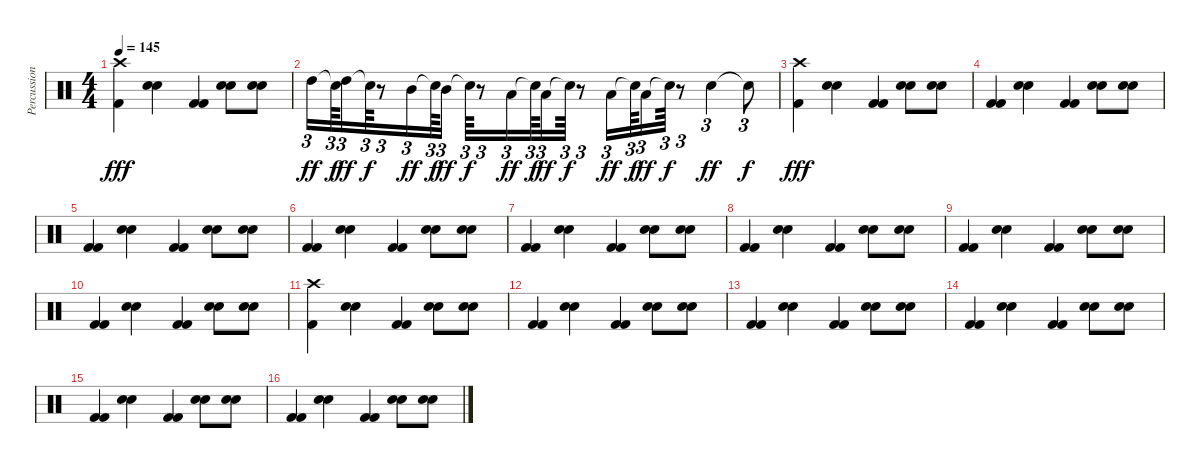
\track ("Percussion ( Keyboard )" "Percussion") {instrument percussion bank 4}
\staff {score}
\articulation defaults
\ts (4 4)
\tempo 145
\clef neutral
\ks c
("Crash high (hit)" "Kick (hit) 2").4{dy fff} ("Electric Snare (hit)" "Hand Clap (hit)").4 ("Kick (hit) 2" "Kick (hit) 2").4 ("Electric Snare (hit)" "Hand Clap (hit)").8 ("Electric Snare (hit)" "Hand Clap (hit)").8 |
"High Tom (hit)".16{tu (3 2) dy ff} "Snare (hit)"{t}.64{tu (3 2) dy f} "High Tom (hit)".16{tu (3 2) dy ff} "Snare (hit)"{t}.64{tu (3 2) dy f} r.8{tu (3 2)} "Mid Tom (hit)".16{tu (3 2) dy ff} "Snare (hit)"{t}.64{tu (3 2) dy f} "Mid Tom (hit)".16{tu (3 2) dy ff} "Snare (hit)"{t}.64{tu (3 2) dy f} r.8{tu (3 2)} "Low Tom (hit)".16{tu (3 2) dy ff} "Snare (hit)"{t}.64{tu (3 2) dy f} "Low Tom (hit)".16{tu (3 2) dy ff} "Snare (hit)"{t}.64{tu (3 2) dy f} r.8{tu (3 2)} "Low Floor Tom (hit)".16{tu (3 2) dy ff} "Snare (hit)"{t}.64{tu (3 2) dy f} "Low Floor Tom (hit)".16{tu (3 2) dy ff} "Snare (hit)"{t}.64{tu (3 2) dy f} r.8{tu (3 2)} "Hand Clap (hit)".4{tu (3 2) dy ff} "Snare (hit)"{t}.8{tu (3 2) dy f} |
("Crash high (hit)" "Kick (hit) 2").4{dy fff} ("Electric Snare (hit)" "Hand Clap (hit)").4 ("Kick (hit) 2" "Kick (hit) 2").4 ("Electric Snare (hit)" "Hand Clap (hit)").8 ("Electric Snare (hit)" "Hand Clap (hit)").8 |
("Kick (hit) 2" "Kick (hit) 2").4 ("Electric Snare (hit)" "Hand Clap (hit)").4 ("Kick (hit) 2" "Kick (hit) 2").4 ("Electric Snare (hit)" "Hand Clap (hit)").8 ("Electric Snare (hit)" "Hand Clap (hit)").8 |
("Kick (hit) 2" "Kick (hit) 2").4 ("Electric Snare (hit)" "Hand Clap (hit)").4 ("Kick (hit) 2" "Kick (hit) 2").4 ("Electric Snare (hit)" "Hand Clap (hit)").8 ("Electric Snare (hit)" "Hand Clap (hit)").8 |
("Kick (hit) 2" "Kick (hit) 2").4 ("Electric Snare (hit)" "Hand Clap (hit)").4 ("Kick (hit) 2" "Kick (hit) 2").4 ("Electric Snare (hit)" "Hand Clap (hit)").8 ("Electric Snare (hit)" "Hand Clap (hit)").8 |
("Kick (hit) 2" "Kick (hit) 2").4 ("Electric Snare (hit)" "Hand Clap (hit)").4 ("Kick (hit) 2" "Kick (hit) 2").4 ("Electric Snare (hit)" "Hand Clap (hit)").8 ("Electric Snare (hit)" "Hand Clap (hit)").8 |
("Kick (hit) 2" "Kick (hit) 2").4 ("Electric Snare (hit)" "Hand Clap (hit)").4 ("Kick (hit) 2" "Kick (hit) 2").4 ("Electric Snare (hit)" "Hand Clap (hit)").8 ("Electric Snare (hit)" "Hand Clap (hit)").8 |
("Kick (hit) 2" "Kick (hit) 2").4 ("Electric Snare (hit)" "Hand Clap (hit)").4 ("Kick (hit) 2" "Kick (hit) 2").4 ("Electric Snare (hit)" "Hand Clap (hit)").8 ("Electric Snare (hit)" "Hand Clap (hit)").8 |
("Kick (hit) 2" "Kick (hit) 2").4 ("Electric Snare (hit)" "Hand Clap (hit)").4 ("Kick (hit) 2" "Kick (hit) 2").4 ("Electric Snare (hit)" "Hand Clap (hit)").8 ("Electric Snare (hit)" "Hand Clap (hit)").8 |
("Crash high (hit)" "Kick (hit) 2").4 ("Electric Snare (hit)" "Hand Clap (hit)").4 ("Kick (hit) 2" "Kick (hit) 2").4 ("Electric Snare (hit)" "Hand Clap (hit)").8 ("Electric Snare (hit)" "Hand Clap (hit)").8 |
("Kick (hit) 2" "Kick (hit) 2").4 ("Electric Snare (hit)" "Hand Clap (hit)").4 ("Kick (hit) 2" "Kick (hit) 2").4 ("Electric Snare (hit)" "Hand Clap (hit)").8 ("Electric Snare (hit)" "Hand Clap (hit)").8 |
("Kick (hit) 2" "Kick (hit) 2").4 ("Electric Snare (hit)" "Hand Clap (hit)").4 ("Kick (hit) 2" "Kick (hit) 2").4 ("Electric Snare (hit)" "Hand Clap (hit)").8 ("Electric Snare (hit)" "Hand Clap (hit)").8 |
("Kick (hit) 2" "Kick (hit) 2").4 ("Electric Snare (hit)" "Hand Clap (hit)").4 ("Kick (hit) 2" "Kick (hit) 2").4 ("Electric Snare (hit)" "Hand Clap (hit)").8 ("Electric Snare (hit)" "Hand Clap (hit)").8 |
("Kick (hit) 2" "Kick (hit) 2").4 ("Electric Snare (hit)" "Hand Clap (hit)").4 ("Kick (hit) 2" "Kick (hit) 2").4 ("Electric Snare (hit)" "Hand Clap (hit)").8 ("Electric Snare (hit)" "Hand Clap (hit)").8 |
("Kick (hit) 2" "Kick (hit) 2").4 ("Electric Snare (hit)" "Hand Clap (hit)").4 ("Kick (hit) 2" "Kick (hit) 2").4 ("Electric Snare (hit)" "Hand Clap (hit)").8 ("Electric Snare (hit)" "Hand Clap (hit)").8
